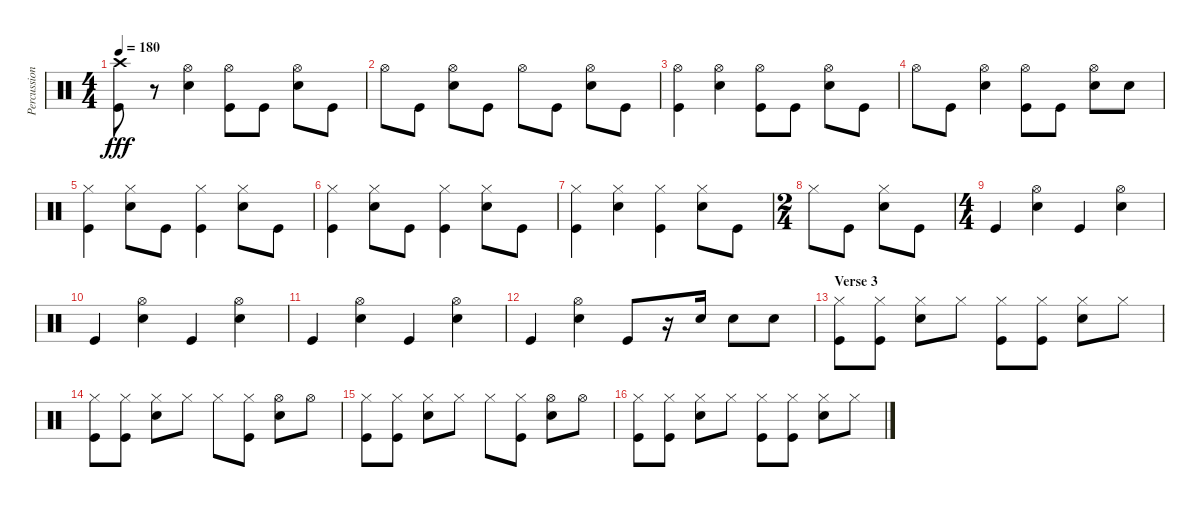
\track ("Percussion" "Percussion") {instrument percussion}
\staff {score}
\articulation defaults
\ts (4 4)
\tempo 180
\clef neutral
\ks c
("Crash high (hit)" "Kick (hit)").8{dy fff} r.8 ("Hi-Hat (open)" "Snare (hit) 2").4 ("Hi-Hat (open)" "Kick (hit)").8 "Kick (hit)".8 ("Hi-Hat (open)" "Snare (hit) 2").8 "Kick (hit)".8 |
"Hi-Hat (open)".8 "Kick (hit)".8 ("Hi-Hat (open)" "Snare (hit) 2").8 "Kick (hit)".8 "Hi-Hat (open)".8 "Kick (hit)".8 ("Hi-Hat (open)" "Snare (hit) 2").8 "Kick (hit)".8 |
("Hi-Hat (open)" "Kick (hit)").4 ("Hi-Hat (open)" "Snare (hit) 2").4 ("Hi-Hat (open)" "Kick (hit)").8 "Kick (hit)".8 ("Hi-Hat (open)" "Snare (hit) 2").8 "Kick (hit)".8 |
"Hi-Hat (open)".8 "Kick (hit)".8 ("Hi-Hat (open)" "Snare (hit) 2").4 ("Hi-Hat (open)" "Kick (hit)").8 "Kick (hit)".8 ("Hi-Hat (open)" "Snare (hit) 2").8 "Snare (hit) 2".8 |
("Hi-Hat (closed)" "Kick (hit)").4 ("Hi-Hat (closed)" "Snare (hit) 2").8 "Kick (hit)".8 ("Hi-Hat (closed)" "Kick (hit)").4 ("Hi-Hat (closed)" "Snare (hit) 2").8 "Kick (hit)".8 |
("Hi-Hat (closed)" "Kick (hit)").4 ("Hi-Hat (closed)" "Snare (hit) 2").8 "Kick (hit)".8 ("Hi-Hat (closed)" "Kick (hit)").4 ("Hi-Hat (closed)" "Snare (hit) 2").8 "Kick (hit)".8 |
("Hi-Hat (closed)" "Kick (hit)").4 ("Hi-Hat (closed)" "Snare (hit) 2").4 ("Hi-Hat (closed)" "Kick (hit)").4 ("Hi-Hat (closed)" "Snare (hit) 2").8 "Kick (hit)".8 |
\ts (2 4)
"Hi-Hat (closed)".8 "Kick (hit)".8 ("Hi-Hat (closed)" "Snare (hit) 2").8 "Kick (hit)".8 |
\ts (4 4)
"Kick (hit)".4 ("Hi-Hat (open)" "Snare (hit) 2").4 "Kick (hit)".4 ("Hi-Hat (open)" "Snare (hit) 2").4 |
"Kick (hit)".4 ("Hi-Hat (open)" "Snare (hit) 2").4 "Kick (hit)".4 ("Hi-Hat (open)" "Snare (hit) 2").4 |
"Kick (hit)".4 ("Hi-Hat (open)" "Snare (hit) 2").4 "Kick (hit)".4 ("Hi-Hat (open)" "Snare (hit) 2").4 |
"Kick (hit)".4 ("Hi-Hat (open)" "Snare (hit) 2").4 "Kick (hit)".8 r.16 "Snare (hit) 2".16 "Snare (hit) 2".8 "Snare (hit) 2".8 |
\section ("" "Verse 3")
("Hi-Hat (closed)" "Kick (hit)").8 ("Hi-Hat (closed)" "Kick (hit)").8 ("Hi-Hat (closed)" "Snare (hit) 2").8 "Hi-Hat (closed)".8 ("Hi-Hat (closed)" "Kick (hit)").8 ("Hi-Hat (closed)" "Kick (hit)").8 ("Hi-Hat (closed)" "Snare (hit) 2").8 "Hi-Hat (closed)".8 |
("Hi-Hat (closed)" "Kick (hit)").8 ("Hi-Hat (closed)" "Kick (hit)").8 ("Hi-Hat (closed)" "Snare (hit) 2").8 "Hi-Hat (closed)".8 "Hi-Hat (closed)".8 ("Hi-Hat (closed)" "Kick (hit)").8 ("Hi-Hat (open)" "Snare (hit) 2").8 "Hi-Hat (open)".8 |
("Hi-Hat (closed)" "Kick (hit)").8 ("Hi-Hat (closed)" "Kick (hit)").8 ("Hi-Hat (closed)" "Snare (hit) 2").8 "Hi-Hat (closed)".8 "Hi-Hat (closed)".8 ("Hi-Hat (closed)" "Kick (hit)").8 ("Hi-Hat (open)" "Snare (hit) 2").8 "Hi-Hat (open)".8 |
("Hi-Hat (closed)" "Kick (hit)").8 ("Hi-Hat (closed)" "Kick (hit)").8 ("Hi-Hat (closed)" "Snare (hit) 2").8 "Hi-Hat (closed)".8 ("Hi-Hat (closed)" "Kick (hit)").8 ("Hi-Hat (closed)" "Kick (hit)").8 ("Hi-Hat (closed)" "Snare (hit) 2").8 "Hi-Hat (closed)".8
